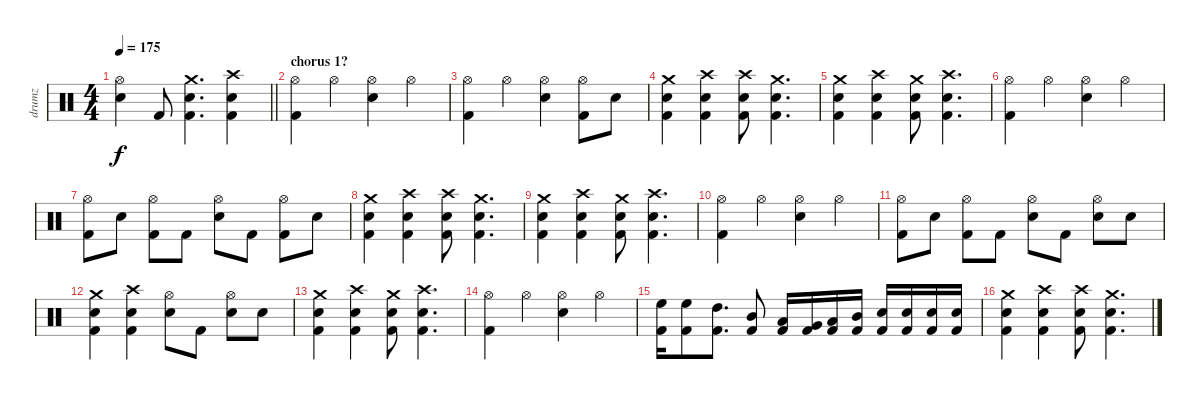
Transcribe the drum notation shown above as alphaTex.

\track ("drumz" "drumz") {instrument percussion}
\staff {score}
\articulation defaults
\ts (4 4)
\tempo 175
\clef neutral
\barLineRight lightlight
\ks c
("Hi-Hat (open)" "Electric Snare (hit)").4{dy f} "Kick (hit) 2".8 ("Crash medium (hit)" "Electric Snare (hit)" "Kick (hit) 2").4{d} ("Crash high (hit)" "Electric Snare (hit)" "Kick (hit) 2").4 |
\section ("" "chorus 1?")
("Hi-Hat (open)" "Kick (hit) 2").4 "Hi-Hat (open)".4 ("Hi-Hat (open)" "Electric Snare (hit)").4 "Hi-Hat (open)".4 |
("Hi-Hat (open)" "Kick (hit) 2").4 "Hi-Hat (open)".4 ("Hi-Hat (open)" "Electric Snare (hit)").4 ("Hi-Hat (open)" "Kick (hit) 2").8 "Electric Snare (hit)".8 |
("Crash medium (hit)" "Electric Snare (hit)" "Kick (hit) 2").4 ("Crash high (hit)" "Electric Snare (hit)" "Kick (hit) 2").4 ("Crash high (hit)" "Electric Snare (hit)" "Kick (hit) 2").8 ("Crash medium (hit)" "Electric Snare (hit)" "Kick (hit) 2").4{d} |
("Crash medium (hit)" "Electric Snare (hit)" "Kick (hit) 2").4 ("Crash high (hit)" "Electric Snare (hit)" "Kick (hit) 2").4 ("Crash medium (hit)" "Electric Snare (hit)" "Kick (hit) 2").8 ("Crash high (hit)" "Electric Snare (hit)" "Kick (hit) 2").4{d} |
("Hi-Hat (open)" "Kick (hit) 2").4 "Hi-Hat (open)".4 ("Hi-Hat (open)" "Electric Snare (hit)").4 "Hi-Hat (open)".4 |
("Hi-Hat (open)" "Kick (hit) 2").8 "Electric Snare (hit)".8 ("Hi-Hat (open)" "Kick (hit) 2").8 "Kick (hit) 2".8 ("Hi-Hat (open)" "Electric Snare (hit)").8 "Kick (hit) 2".8 ("Hi-Hat (open)" "Kick (hit) 2").8 "Electric Snare (hit)".8 |
("Crash medium (hit)" "Electric Snare (hit)" "Kick (hit) 2").4 ("Crash high (hit)" "Electric Snare (hit)" "Kick (hit) 2").4 ("Crash high (hit)" "Electric Snare (hit)" "Kick (hit) 2").8 ("Crash medium (hit)" "Electric Snare (hit)" "Kick (hit) 2").4{d} |
("Crash medium (hit)" "Electric Snare (hit)" "Kick (hit) 2").4 ("Crash high (hit)" "Electric Snare (hit)" "Kick (hit) 2").4 ("Crash medium (hit)" "Electric Snare (hit)" "Kick (hit) 2").8 ("Crash high (hit)" "Electric Snare (hit)" "Kick (hit) 2").4{d} |
("Hi-Hat (open)" "Kick (hit) 2").4 "Hi-Hat (open)".4 ("Hi-Hat (open)" "Electric Snare (hit)").4 "Hi-Hat (open)".4 |
("Hi-Hat (open)" "Kick (hit) 2").8 "Electric Snare (hit)".8 ("Hi-Hat (open)" "Kick (hit) 2").8 "Kick (hit) 2".8 ("Hi-Hat (open)" "Electric Snare (hit)").8 "Kick (hit) 2".8 ("Hi-Hat (open)" "Electric Snare (hit)").8 "Electric Snare (hit)".8 |
("Crash medium (hit)" "Electric Snare (hit)" "Kick (hit) 2").4 ("Crash high (hit)" "Electric Snare (hit)" "Kick (hit) 2").4 ("Hi-Hat (open)" "Electric Snare (hit)").8 "Kick (hit) 2".8 ("Hi-Hat (open)" "Electric Snare (hit)").8 "Electric Snare (hit)".8 |
("Crash medium (hit)" "Electric Snare (hit)" "Kick (hit) 2").4 ("Crash high (hit)" "Electric Snare (hit)" "Kick (hit) 2").4 ("Crash medium (hit)" "Electric Snare (hit)" "Kick (hit) 2").8 ("Crash high (hit)" "Electric Snare (hit)" "Kick (hit) 2").4{d} |
("Hi-Hat (open)" "Kick (hit) 2").4 "Hi-Hat (open)".4 ("Hi-Hat (open)" "Electric Snare (hit)").4 "Hi-Hat (open)".4 |
("High Floor Tom (hit)" "Kick (hit) 2").16 ("High Floor Tom (hit)" "Kick (hit) 2").8 ("High Tom (hit)" "Kick (hit) 2").8{d} ("Mid Tom (hit)" "Kick (hit) 2").8 ("Low Tom (hit)" "Kick (hit) 2").16 ("Very Low Tom (hit)" "Kick (hit) 2").16 ("Low Floor Tom (hit)" "Kick (hit) 2").16 ("Mid Tom (hit)" "Kick (hit) 2").16 ("Electric Snare (hit)" "Kick (hit) 2").16 ("Electric Snare (hit)" "Kick (hit) 2").16 ("Electric Snare (hit)" "Kick (hit) 2").16 ("Electric Snare (hit)" "Kick (hit) 2").16 |
("Crash medium (hit)" "Electric Snare (hit)" "Kick (hit) 2").4 ("Crash high (hit)" "Electric Snare (hit)" "Kick (hit) 2").4 ("Crash high (hit)" "Electric Snare (hit)" "Kick (hit) 2").8 ("Crash medium (hit)" "Electric Snare (hit)" "Kick (hit) 2").4{d}
